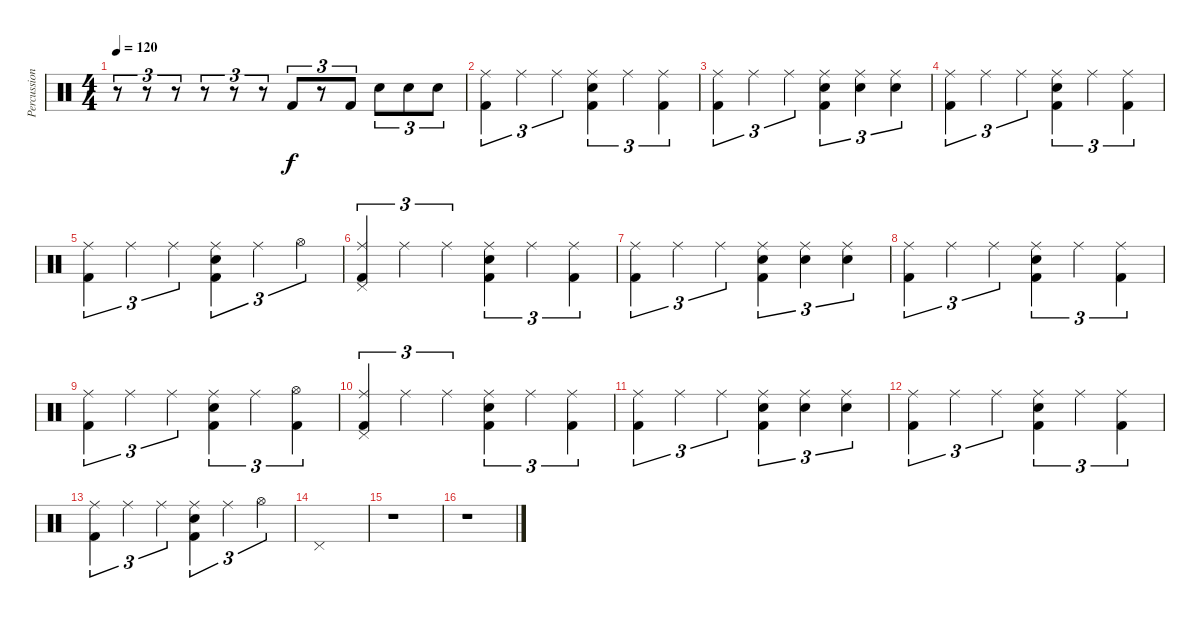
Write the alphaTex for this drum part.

\track ("Percussion" "Percussion") {instrument percussion}
\staff {score}
\articulation defaults
\ts (4 4)
\tempo 120
\clef neutral
\ks c
r.8{tu (3 2) dy f} r.8{tu (3 2)} r.8{tu (3 2)} r.8{tu (3 2)} r.8{tu (3 2)} r.8{tu (3 2)} "Kick (hit) 2".8{tu (3 2)} r.8{tu (3 2)} "Kick (hit) 2".8{tu (3 2)} "Snare (hit) 2".8{tu (3 2)} "Snare (hit) 2".8{tu (3 2)} "Snare (hit) 2".8{tu (3 2)} |
("Ride (middle)" "Kick (hit) 2").4{tu (3 2)} "Ride (middle)".4{tu (3 2)} "Ride (middle)".4{tu (3 2)} ("Ride (middle)" "Snare (hit) 2" "Kick (hit) 2").4{tu (3 2)} "Ride (middle)".4{tu (3 2)} ("Ride (middle)" "Kick (hit) 2").4{tu (3 2)} |
("Ride (middle)" "Kick (hit) 2").4{tu (3 2)} "Ride (middle)".4{tu (3 2)} "Ride (middle)".4{tu (3 2)} ("Ride (middle)" "Snare (hit) 2" "Kick (hit) 2").4{tu (3 2)} ("Ride (middle)" "Snare (hit) 2").4{tu (3 2)} ("Ride (middle)" "Snare (hit) 2").4{tu (3 2)} |
("Ride (middle)" "Kick (hit) 2").4{tu (3 2)} "Ride (middle)".4{tu (3 2)} "Ride (middle)".4{tu (3 2)} ("Ride (middle)" "Snare (hit) 2" "Kick (hit) 2").4{tu (3 2)} "Ride (middle)".4{tu (3 2)} ("Ride (middle)" "Kick (hit) 2").4{tu (3 2)} |
("Ride (middle)" "Kick (hit) 2").4{tu (3 2)} "Ride (middle)".4{tu (3 2)} "Ride (middle)".4{tu (3 2)} ("Ride (middle)" "Snare (hit) 2" "Kick (hit) 2").4{tu (3 2)} "Ride (middle)".4{tu (3 2)} "Hi-Hat (open)".4{tu (3 2)} |
("Ride (middle)" "Pedal Hi-Hat (hit)" "Kick (hit) 2").4{tu (3 2)} "Ride (middle)".4{tu (3 2)} "Ride (middle)".4{tu (3 2)} ("Ride (middle)" "Snare (hit) 2" "Kick (hit) 2").4{tu (3 2)} "Ride (middle)".4{tu (3 2)} ("Ride (middle)" "Kick (hit) 2").4{tu (3 2)} |
("Ride (middle)" "Kick (hit) 2").4{tu (3 2)} "Ride (middle)".4{tu (3 2)} "Ride (middle)".4{tu (3 2)} ("Ride (middle)" "Snare (hit) 2" "Kick (hit) 2").4{tu (3 2)} ("Ride (middle)" "Snare (hit) 2").4{tu (3 2)} ("Ride (middle)" "Snare (hit) 2").4{tu (3 2)} |
("Ride (middle)" "Kick (hit) 2").4{tu (3 2)} "Ride (middle)".4{tu (3 2)} "Ride (middle)".4{tu (3 2)} ("Ride (middle)" "Snare (hit) 2" "Kick (hit) 2").4{tu (3 2)} "Ride (middle)".4{tu (3 2)} ("Ride (middle)" "Kick (hit) 2").4{tu (3 2)} |
("Ride (middle)" "Kick (hit) 2").4{tu (3 2)} "Ride (middle)".4{tu (3 2)} "Ride (middle)".4{tu (3 2)} ("Ride (middle)" "Snare (hit) 2" "Kick (hit) 2").4{tu (3 2)} "Ride (middle)".4{tu (3 2)} ("Hi-Hat (open)" "Kick (hit) 2").4{tu (3 2)} |
("Ride (middle)" "Pedal Hi-Hat (hit)" "Kick (hit) 2").4{tu (3 2)} "Ride (middle)".4{tu (3 2)} "Ride (middle)".4{tu (3 2)} ("Ride (middle)" "Snare (hit) 2" "Kick (hit) 2").4{tu (3 2)} "Ride (middle)".4{tu (3 2)} ("Ride (middle)" "Kick (hit) 2").4{tu (3 2)} |
("Ride (middle)" "Kick (hit) 2").4{tu (3 2)} "Ride (middle)".4{tu (3 2)} "Ride (middle)".4{tu (3 2)} ("Ride (middle)" "Snare (hit) 2" "Kick (hit) 2").4{tu (3 2)} ("Ride (middle)" "Snare (hit) 2").4{tu (3 2)} ("Ride (middle)" "Snare (hit) 2").4{tu (3 2)} |
("Ride (middle)" "Kick (hit) 2").4{tu (3 2)} "Ride (middle)".4{tu (3 2)} "Ride (middle)".4{tu (3 2)} ("Ride (middle)" "Snare (hit) 2" "Kick (hit) 2").4{tu (3 2)} "Ride (middle)".4{tu (3 2)} ("Ride (middle)" "Kick (hit) 2").4{tu (3 2)} |
("Ride (middle)" "Kick (hit) 2").4{tu (3 2)} "Ride (middle)".4{tu (3 2)} "Ride (middle)".4{tu (3 2)} ("Ride (middle)" "Snare (hit) 2" "Kick (hit) 2").4{tu (3 2)} "Ride (middle)".4{tu (3 2)} "Hi-Hat (open)".4{tu (3 2)} |
"Pedal Hi-Hat (hit)".1 |
r.1 |
r.1
